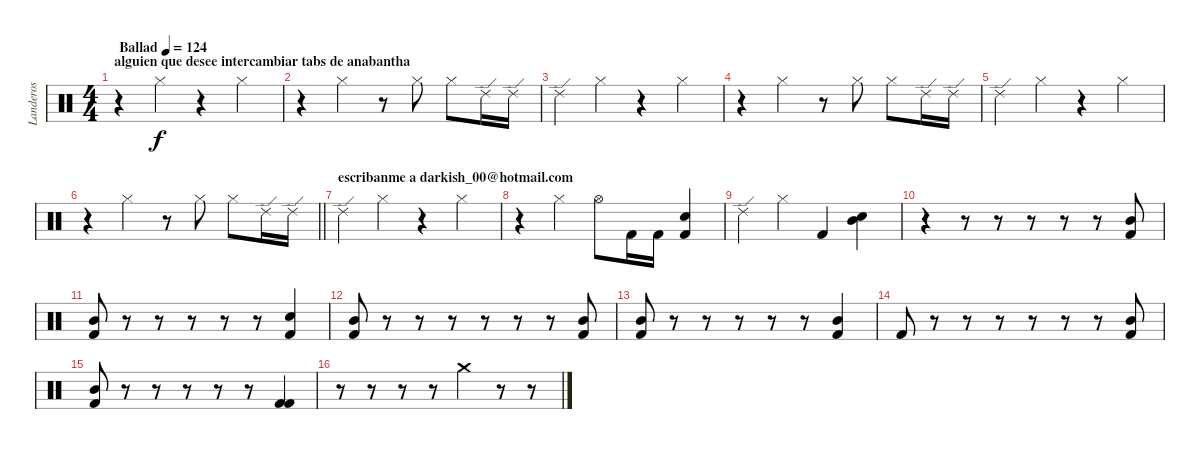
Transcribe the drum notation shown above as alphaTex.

\track ("Landeros" "Landeros") {instrument percussion}
\staff {score}
\articulation defaults
\ts (4 4)
\section ("" "alguien que desee intercambiar tabs de anabantha")
\tempo (124 "Ballad")
\clef neutral
\ks c
r.4{dy f} "Hi-Hat (closed)".4 r.4 "Hi-Hat (closed)".4 |
r.4 "Hi-Hat (closed)".4 r.8 "Hi-Hat (closed)".8 "Hi-Hat (closed)".8 "Ride (edge) 2".16 "Ride (edge) 2".16 |
"Ride (edge) 2".4 "Hi-Hat (closed)".4 r.4 "Hi-Hat (closed)".4 |
r.4 "Hi-Hat (closed)".4 r.8 "Hi-Hat (closed)".8 "Hi-Hat (closed)".8 "Ride (edge) 2".16 "Ride (edge) 2".16 |
"Ride (edge) 2".4 "Hi-Hat (closed)".4 r.4 "Hi-Hat (closed)".4 |
\barLineRight lightlight
r.4 "Hi-Hat (closed)".4 r.8 "Hi-Hat (closed)".8 "Hi-Hat (closed)".8 "Ride (edge) 2".16 "Ride (edge) 2".16 |
\section ("" "escribanme a darkish_00@hotmail.com")
"Ride (edge) 2".4 "Hi-Hat (closed)".4 r.4 "Hi-Hat (closed)".4 |
r.4 "Hi-Hat (closed)".4 "Hi-Hat (open)".8 "Kick (hit) 2".16 "Kick (hit) 2".16 ("Kick (hit) 2" "Electric Snare (hit)").4 |
"Ride (edge) 2".4 "Hi-Hat (closed)".4 "Kick (hit) 2".4 ("Mid Tom (hit)" "Electric Snare (hit)").4 |
r.4 r.8 r.8 r.8 r.8 r.8 ("Kick (hit) 2" "Mid Tom (hit)").8 |
("Kick (hit) 2" "Mid Tom (hit)").8 r.8 r.8 r.8 r.8 r.8 ("Kick (hit) 2" "Electric Snare (hit)").4 |
("Kick (hit) 2" "Mid Tom (hit)").8 r.8 r.8 r.8 r.8 r.8 r.8 ("Kick (hit) 2" "Mid Tom (hit)").8 |
("Kick (hit) 2" "Mid Tom (hit)").8 r.8 r.8 r.8 r.8 r.8 ("Kick (hit) 2" "Mid Tom (hit)").4 |
"Kick (hit) 2".8 r.8 r.8 r.8 r.8 r.8 r.8 ("Kick (hit) 2" "Mid Tom (hit)").8 |
("Kick (hit) 2" "Mid Tom (hit)").8 r.8 r.8 r.8 r.8 r.8 ("Kick (hit) 2" "Kick (hit) 2").4 |
r.8 r.8 r.8 r.8 "Crash medium (hit)".4 r.8 r.8
